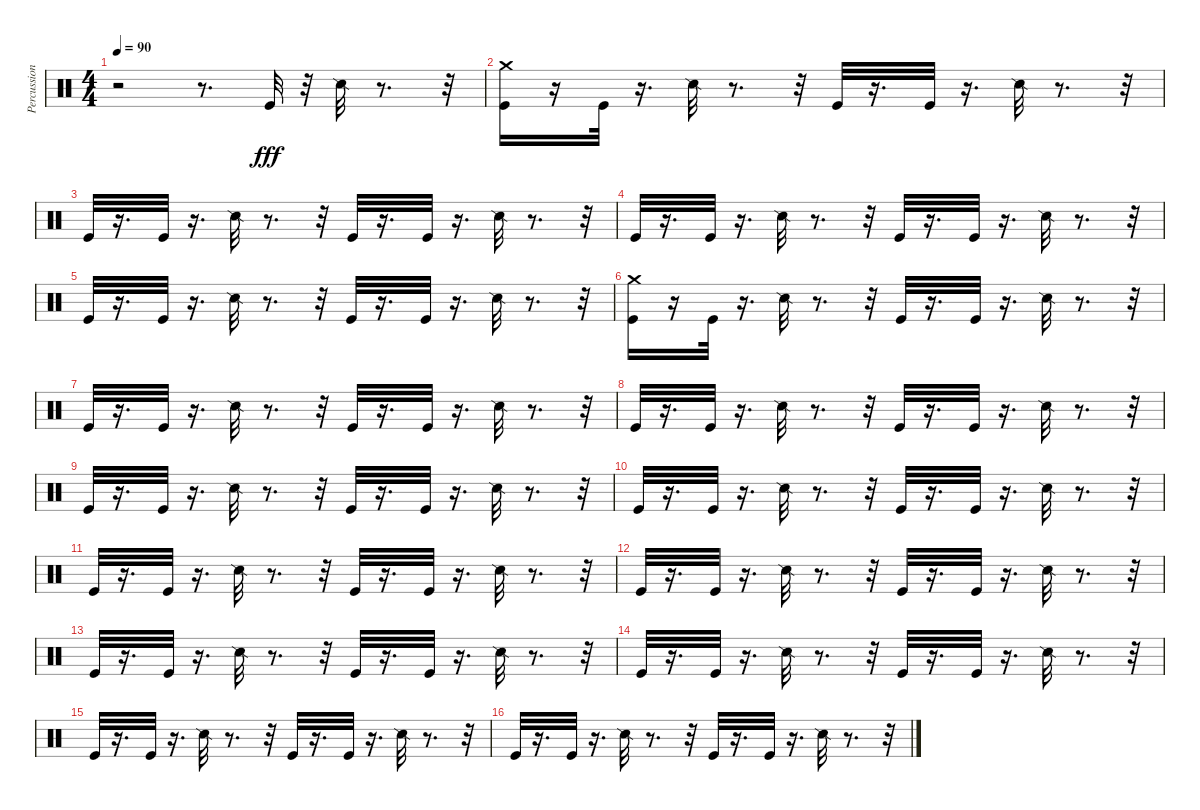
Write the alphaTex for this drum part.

\track ("Percussion" "Percussion") {instrument percussion}
\staff {score}
\articulation defaults
\ts (4 4)
\tempo 90
\clef neutral
\ks c
r.2{dy fff} r.8{d} "Kick (hit)".32 r.32 "Snare (side stick) 2".32 r.8{d} r.32 |
("Crash medium (hit)" "Kick (hit)").16 r.16 "Kick (hit)".32 r.16{d} "Snare (side stick) 2".32 r.8{d} r.32 "Kick (hit)".32 r.16{d} "Kick (hit)".32 r.16{d} "Snare (side stick) 2".32 r.8{d} r.32 |
"Kick (hit)".32 r.16{d} "Kick (hit)".32 r.16{d} "Snare (side stick) 2".32 r.8{d} r.32 "Kick (hit)".32 r.16{d} "Kick (hit)".32 r.16{d} "Snare (side stick) 2".32 r.8{d} r.32 |
"Kick (hit)".32 r.16{d} "Kick (hit)".32 r.16{d} "Snare (side stick) 2".32 r.8{d} r.32 "Kick (hit)".32 r.16{d} "Kick (hit)".32 r.16{d} "Snare (side stick) 2".32 r.8{d} r.32 |
"Kick (hit)".32 r.16{d} "Kick (hit)".32 r.16{d} "Snare (side stick) 2".32 r.8{d} r.32 "Kick (hit)".32 r.16{d} "Kick (hit)".32 r.16{d} "Snare (side stick) 2".32 r.8{d} r.32 |
("Kick (hit)" "Crash medium (hit)").16 r.16 "Kick (hit)".32 r.16{d} "Snare (side stick) 2".32 r.8{d} r.32 "Kick (hit)".32 r.16{d} "Kick (hit)".32 r.16{d} "Snare (side stick) 2".32 r.8{d} r.32 |
"Kick (hit)".32 r.16{d} "Kick (hit)".32 r.16{d} "Snare (side stick) 2".32 r.8{d} r.32 "Kick (hit)".32 r.16{d} "Kick (hit)".32 r.16{d} "Snare (side stick) 2".32 r.8{d} r.32 |
"Kick (hit)".32 r.16{d} "Kick (hit)".32 r.16{d} "Snare (side stick) 2".32 r.8{d} r.32 "Kick (hit)".32 r.16{d} "Kick (hit)".32 r.16{d} "Snare (side stick) 2".32 r.8{d} r.32 |
"Kick (hit)".32 r.16{d} "Kick (hit)".32 r.16{d} "Snare (side stick) 2".32 r.8{d} r.32 "Kick (hit)".32 r.16{d} "Kick (hit)".32 r.16{d} "Snare (side stick) 2".32 r.8{d} r.32 |
"Kick (hit)".32 r.16{d} "Kick (hit)".32 r.16{d} "Snare (side stick) 2".32 r.8{d} r.32 "Kick (hit)".32 r.16{d} "Kick (hit)".32 r.16{d} "Snare (side stick) 2".32 r.8{d} r.32 |
"Kick (hit)".32 r.16{d} "Kick (hit)".32 r.16{d} "Snare (side stick) 2".32 r.8{d} r.32 "Kick (hit)".32 r.16{d} "Kick (hit)".32 r.16{d} "Snare (side stick) 2".32 r.8{d} r.32 |
"Kick (hit)".32 r.16{d} "Kick (hit)".32 r.16{d} "Snare (side stick) 2".32 r.8{d} r.32 "Kick (hit)".32 r.16{d} "Kick (hit)".32 r.16{d} "Snare (side stick) 2".32 r.8{d} r.32 |
"Kick (hit)".32 r.16{d} "Kick (hit)".32 r.16{d} "Snare (side stick) 2".32 r.8{d} r.32 "Kick (hit)".32 r.16{d} "Kick (hit)".32 r.16{d} "Snare (side stick) 2".32 r.8{d} r.32 |
"Kick (hit)".32 r.16{d} "Kick (hit)".32 r.16{d} "Snare (side stick) 2".32 r.8{d} r.32 "Kick (hit)".32 r.16{d} "Kick (hit)".32 r.16{d} "Snare (side stick) 2".32 r.8{d} r.32 |
"Kick (hit)".32 r.16{d} "Kick (hit)".32 r.16{d} "Snare (side stick) 2".32 r.8{d} r.32 "Kick (hit)".32 r.16{d} "Kick (hit)".32 r.16{d} "Snare (side stick) 2".32 r.8{d} r.32 |
"Kick (hit)".32 r.16{d} "Kick (hit)".32 r.16{d} "Snare (side stick) 2".32 r.8{d} r.32 "Kick (hit)".32 r.16{d} "Kick (hit)".32 r.16{d} "Snare (side stick) 2".32 r.8{d} r.32
